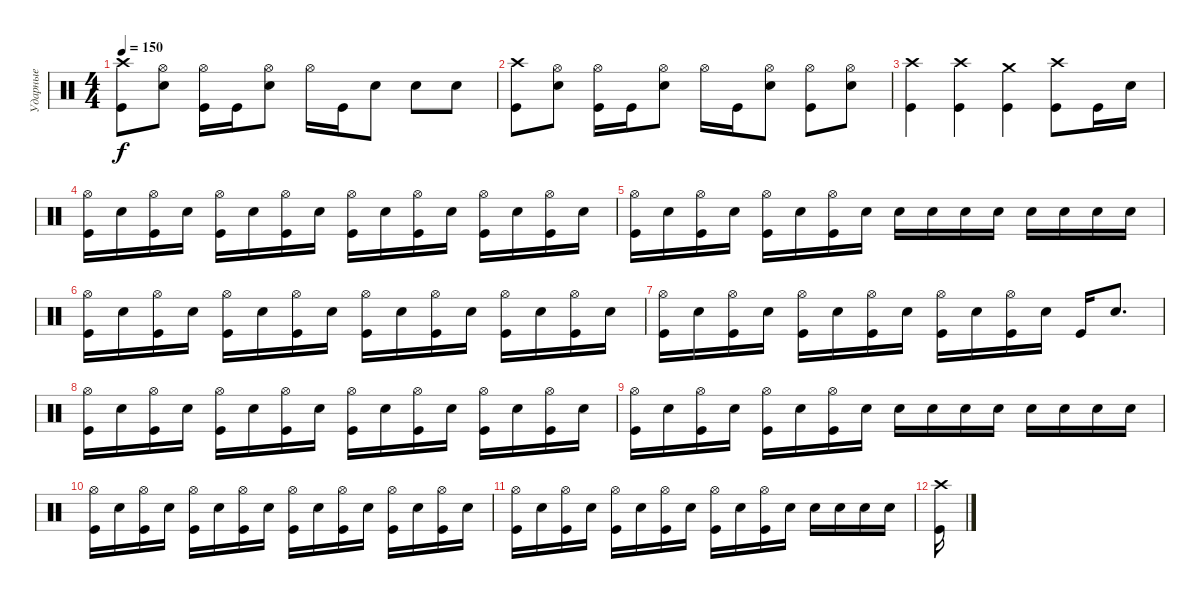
\track ("Ударные" "Ударные") {instrument percussion}
\staff {score}
\articulation defaults
\ts (4 4)
\tempo 150
\clef neutral
\ks c
("Crash high (hit)" "Kick (hit)").8{dy f} ("Hi-Hat (open)" "Electric Snare (hit)").8 ("Hi-Hat (open)" "Kick (hit)").16 "Kick (hit)".16 ("Hi-Hat (open)" "Electric Snare (hit)").8 "Hi-Hat (open)".16 "Kick (hit)".16 "Electric Snare (hit)".8 "Electric Snare (hit)".8 "Electric Snare (hit)".8 |
("Crash high (hit)" "Kick (hit)").8 ("Hi-Hat (open)" "Electric Snare (hit)").8 ("Hi-Hat (open)" "Kick (hit)").16 "Kick (hit)".16 ("Hi-Hat (open)" "Electric Snare (hit)").8 "Hi-Hat (open)".16 "Kick (hit)".16 ("Hi-Hat (open)" "Electric Snare (hit)").8 ("Hi-Hat (open)" "Kick (hit)").8 ("Hi-Hat (open)" "Electric Snare (hit)").8 |
("Crash high (hit)" "Kick (hit)").4 ("Crash high (hit)" "Kick (hit)").4 ("Crash medium (hit)" "Kick (hit)").4 ("Crash high (hit)" "Kick (hit)").8 "Kick (hit)".16 "Electric Snare (hit)".16 |
("Hi-Hat (open)" "Kick (hit)").16 "Electric Snare (hit)".16 ("Hi-Hat (open)" "Kick (hit)").16 "Electric Snare (hit)".16 ("Hi-Hat (open)" "Kick (hit)").16 "Electric Snare (hit)".16 ("Hi-Hat (open)" "Kick (hit)").16 "Electric Snare (hit)".16 ("Hi-Hat (open)" "Kick (hit)").16 "Electric Snare (hit)".16 ("Hi-Hat (open)" "Kick (hit)").16 "Electric Snare (hit)".16 ("Hi-Hat (open)" "Kick (hit)").16 "Electric Snare (hit)".16 ("Hi-Hat (open)" "Kick (hit)").16 "Electric Snare (hit)".16 |
("Hi-Hat (open)" "Kick (hit)").16 "Electric Snare (hit)".16 ("Hi-Hat (open)" "Kick (hit)").16 "Electric Snare (hit)".16 ("Hi-Hat (open)" "Kick (hit)").16 "Electric Snare (hit)".16 ("Hi-Hat (open)" "Kick (hit)").16 "Electric Snare (hit)".16 "Electric Snare (hit)".16 "Electric Snare (hit)".16 "Electric Snare (hit)".16 "Electric Snare (hit)".16 "Electric Snare (hit)".16 "Electric Snare (hit)".16 "Electric Snare (hit)".16 "Electric Snare (hit)".16 |
("Hi-Hat (open)" "Kick (hit)").16 "Electric Snare (hit)".16 ("Hi-Hat (open)" "Kick (hit)").16 "Electric Snare (hit)".16 ("Hi-Hat (open)" "Kick (hit)").16 "Electric Snare (hit)".16 ("Hi-Hat (open)" "Kick (hit)").16 "Electric Snare (hit)".16 ("Hi-Hat (open)" "Kick (hit)").16 "Electric Snare (hit)".16 ("Hi-Hat (open)" "Kick (hit)").16 "Electric Snare (hit)".16 ("Hi-Hat (open)" "Kick (hit)").16 "Electric Snare (hit)".16 ("Hi-Hat (open)" "Kick (hit)").16 "Electric Snare (hit)".16 |
("Hi-Hat (open)" "Kick (hit)").16 "Electric Snare (hit)".16 ("Hi-Hat (open)" "Kick (hit)").16 "Electric Snare (hit)".16 ("Hi-Hat (open)" "Kick (hit)").16 "Electric Snare (hit)".16 ("Hi-Hat (open)" "Kick (hit)").16 "Electric Snare (hit)".16 ("Hi-Hat (open)" "Kick (hit)").16 "Electric Snare (hit)".16 ("Hi-Hat (open)" "Kick (hit)").16 "Electric Snare (hit)".16 "Kick (hit)".16 "Electric Snare (hit)".8{d} |
("Hi-Hat (open)" "Kick (hit)").16 "Electric Snare (hit)".16 ("Hi-Hat (open)" "Kick (hit)").16 "Electric Snare (hit)".16 ("Hi-Hat (open)" "Kick (hit)").16 "Electric Snare (hit)".16 ("Hi-Hat (open)" "Kick (hit)").16 "Electric Snare (hit)".16 ("Hi-Hat (open)" "Kick (hit)").16 "Electric Snare (hit)".16 ("Hi-Hat (open)" "Kick (hit)").16 "Electric Snare (hit)".16 ("Hi-Hat (open)" "Kick (hit)").16 "Electric Snare (hit)".16 ("Hi-Hat (open)" "Kick (hit)").16 "Electric Snare (hit)".16 |
("Hi-Hat (open)" "Kick (hit)").16 "Electric Snare (hit)".16 ("Hi-Hat (open)" "Kick (hit)").16 "Electric Snare (hit)".16 ("Hi-Hat (open)" "Kick (hit)").16 "Electric Snare (hit)".16 ("Hi-Hat (open)" "Kick (hit)").16 "Electric Snare (hit)".16 "Electric Snare (hit)".16 "Electric Snare (hit)".16 "Electric Snare (hit)".16 "Electric Snare (hit)".16 "Electric Snare (hit)".16 "Electric Snare (hit)".16 "Electric Snare (hit)".16 "Electric Snare (hit)".16 |
("Hi-Hat (open)" "Kick (hit)").16 "Electric Snare (hit)".16 ("Hi-Hat (open)" "Kick (hit)").16 "Electric Snare (hit)".16 ("Hi-Hat (open)" "Kick (hit)").16 "Electric Snare (hit)".16 ("Hi-Hat (open)" "Kick (hit)").16 "Electric Snare (hit)".16 ("Hi-Hat (open)" "Kick (hit)").16 "Electric Snare (hit)".16 ("Hi-Hat (open)" "Kick (hit)").16 "Electric Snare (hit)".16 ("Hi-Hat (open)" "Kick (hit)").16 "Electric Snare (hit)".16 ("Hi-Hat (open)" "Kick (hit)").16 "Electric Snare (hit)".16 |
("Hi-Hat (open)" "Kick (hit)").16 "Electric Snare (hit)".16 ("Hi-Hat (open)" "Kick (hit)").16 "Electric Snare (hit)".16 ("Hi-Hat (open)" "Kick (hit)").16 "Electric Snare (hit)".16 ("Hi-Hat (open)" "Kick (hit)").16 "Electric Snare (hit)".16 ("Hi-Hat (open)" "Kick (hit)").16 "Electric Snare (hit)".16 ("Hi-Hat (open)" "Kick (hit)").16 "Electric Snare (hit)".16 "Electric Snare (hit)".16 "Electric Snare (hit)".16 "Electric Snare (hit)".16 "Electric Snare (hit)".16 |
("Crash high (hit)" "Kick (hit)").16
